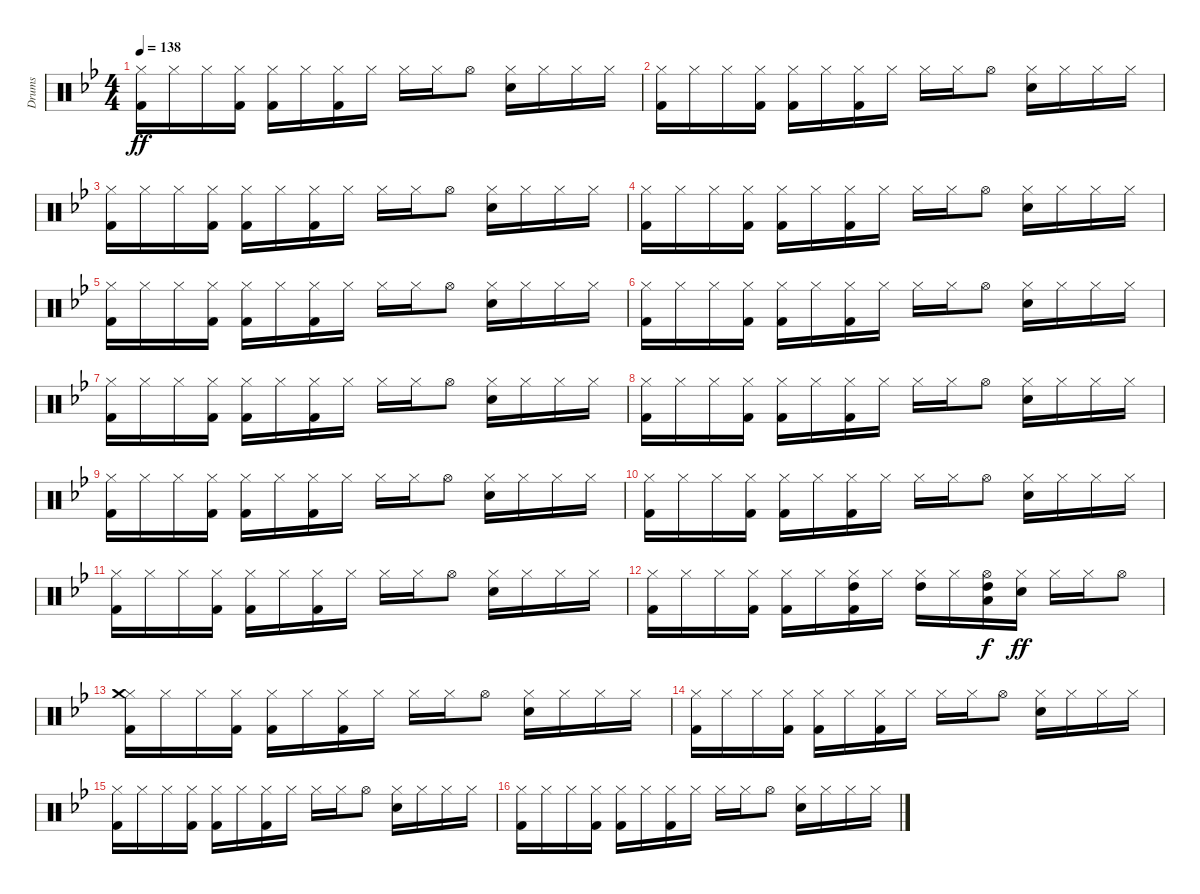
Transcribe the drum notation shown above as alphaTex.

\track ("Drums" "Drums") {instrument percussion}
\staff {score}
\articulation defaults
\ts (4 4)
\tempo 138
\clef neutral
\ks bb
("Kick (hit) 2" "Hi-Hat (closed)").16{dy ff volume 0} "Hi-Hat (closed)".16{volume 0} "Hi-Hat (closed)".16{volume 0} ("Kick (hit) 2" "Hi-Hat (closed)").16{volume 1} ("Kick (hit) 2" "Hi-Hat (closed)").16{volume 1} "Hi-Hat (closed)".16{volume 1} ("Kick (hit) 2" "Hi-Hat (closed)").16{volume 2} "Hi-Hat (closed)".16{volume 2} "Hi-Hat (closed)".16{volume 2} "Hi-Hat (closed)".16{volume 2} "Hi-Hat (open)".8{volume 3} ("Snare (hit) 2" "Hi-Hat (closed)").16{volume 3} "Hi-Hat (closed)".16{volume 4} "Hi-Hat (closed)".16{volume 4} "Hi-Hat (closed)".16{volume 4} |
("Kick (hit) 2" "Hi-Hat (closed)").16{volume 4} "Hi-Hat (closed)".16{volume 5} "Hi-Hat (closed)".16{volume 5} ("Kick (hit) 2" "Hi-Hat (closed)").16{volume 6} ("Kick (hit) 2" "Hi-Hat (closed)").16{volume 6} "Hi-Hat (closed)".16{volume 6} ("Kick (hit) 2" "Hi-Hat (closed)").16{volume 7} "Hi-Hat (closed)".16{volume 7} "Hi-Hat (closed)".16{volume 8} "Hi-Hat (closed)".16{volume 8} "Hi-Hat (open)".8{volume 8} ("Snare (hit) 2" "Hi-Hat (closed)").16{volume 9} "Hi-Hat (closed)".16{volume 10} "Hi-Hat (closed)".16{volume 10} "Hi-Hat (closed)".16{volume 10} |
("Kick (hit) 2" "Hi-Hat (closed)").16{volume 11} "Hi-Hat (closed)".16{volume 11} "Hi-Hat (closed)".16{volume 11} ("Kick (hit) 2" "Hi-Hat (closed)").16{volume 12} ("Kick (hit) 2" "Hi-Hat (closed)").16{volume 12} "Hi-Hat (closed)".16{volume 12} ("Kick (hit) 2" "Hi-Hat (closed)").16{volume 13} "Hi-Hat (closed)".16{volume 13} "Hi-Hat (closed)".16{volume 13} "Hi-Hat (closed)".16{volume 14} "Hi-Hat (open)".8{volume 14} ("Snare (hit) 2" "Hi-Hat (closed)").16{volume 14} "Hi-Hat (closed)".16{volume 15} "Hi-Hat (closed)".16{volume 15} "Hi-Hat (closed)".16{volume 16} |
("Kick (hit) 2" "Hi-Hat (closed)").16{volume 16} "Hi-Hat (closed)".16 "Hi-Hat (closed)".16 ("Kick (hit) 2" "Hi-Hat (closed)").16 ("Kick (hit) 2" "Hi-Hat (closed)").16 "Hi-Hat (closed)".16 ("Kick (hit) 2" "Hi-Hat (closed)").16 "Hi-Hat (closed)".16 "Hi-Hat (closed)".16 "Hi-Hat (closed)".16 "Hi-Hat (open)".8 ("Snare (hit) 2" "Hi-Hat (closed)").16 "Hi-Hat (closed)".16 "Hi-Hat (closed)".16 "Hi-Hat (closed)".16 |
("Kick (hit) 2" "Hi-Hat (closed)").16 "Hi-Hat (closed)".16 "Hi-Hat (closed)".16 ("Kick (hit) 2" "Hi-Hat (closed)").16 ("Kick (hit) 2" "Hi-Hat (closed)").16 "Hi-Hat (closed)".16 ("Kick (hit) 2" "Hi-Hat (closed)").16 "Hi-Hat (closed)".16 "Hi-Hat (closed)".16 "Hi-Hat (closed)".16 "Hi-Hat (open)".8 ("Snare (hit) 2" "Hi-Hat (closed)").16 "Hi-Hat (closed)".16 "Hi-Hat (closed)".16 "Hi-Hat (closed)".16 |
("Kick (hit) 2" "Hi-Hat (closed)").16 "Hi-Hat (closed)".16 "Hi-Hat (closed)".16 ("Kick (hit) 2" "Hi-Hat (closed)").16 ("Kick (hit) 2" "Hi-Hat (closed)").16 "Hi-Hat (closed)".16 ("Kick (hit) 2" "Hi-Hat (closed)").16 "Hi-Hat (closed)".16 "Hi-Hat (closed)".16 "Hi-Hat (closed)".16 "Hi-Hat (open)".8 ("Snare (hit) 2" "Hi-Hat (closed)").16 "Hi-Hat (closed)".16 "Hi-Hat (closed)".16 "Hi-Hat (closed)".16 |
("Kick (hit) 2" "Hi-Hat (closed)").16 "Hi-Hat (closed)".16 "Hi-Hat (closed)".16 ("Kick (hit) 2" "Hi-Hat (closed)").16 ("Kick (hit) 2" "Hi-Hat (closed)").16 "Hi-Hat (closed)".16 ("Kick (hit) 2" "Hi-Hat (closed)").16 "Hi-Hat (closed)".16 "Hi-Hat (closed)".16 "Hi-Hat (closed)".16 "Hi-Hat (open)".8 ("Snare (hit) 2" "Hi-Hat (closed)").16 "Hi-Hat (closed)".16 "Hi-Hat (closed)".16 "Hi-Hat (closed)".16 |
("Kick (hit) 2" "Hi-Hat (closed)").16 "Hi-Hat (closed)".16 "Hi-Hat (closed)".16 ("Kick (hit) 2" "Hi-Hat (closed)").16 ("Kick (hit) 2" "Hi-Hat (closed)").16 "Hi-Hat (closed)".16 ("Kick (hit) 2" "Hi-Hat (closed)").16 "Hi-Hat (closed)".16 "Hi-Hat (closed)".16 "Hi-Hat (closed)".16 "Hi-Hat (open)".8 ("Snare (hit) 2" "Hi-Hat (closed)").16 "Hi-Hat (closed)".16 "Hi-Hat (closed)".16 "Hi-Hat (closed)".16 |
("Kick (hit) 2" "Hi-Hat (closed)").16 "Hi-Hat (closed)".16 "Hi-Hat (closed)".16 ("Kick (hit) 2" "Hi-Hat (closed)").16 ("Kick (hit) 2" "Hi-Hat (closed)").16 "Hi-Hat (closed)".16 ("Kick (hit) 2" "Hi-Hat (closed)").16 "Hi-Hat (closed)".16 "Hi-Hat (closed)".16 "Hi-Hat (closed)".16 "Hi-Hat (open)".8 ("Snare (hit) 2" "Hi-Hat (closed)").16 "Hi-Hat (closed)".16 "Hi-Hat (closed)".16 "Hi-Hat (closed)".16 |
("Kick (hit) 2" "Hi-Hat (closed)").16 "Hi-Hat (closed)".16 "Hi-Hat (closed)".16 ("Kick (hit) 2" "Hi-Hat (closed)").16 ("Kick (hit) 2" "Hi-Hat (closed)").16 "Hi-Hat (closed)".16 ("Kick (hit) 2" "Hi-Hat (closed)").16 "Hi-Hat (closed)".16 "Hi-Hat (closed)".16 "Hi-Hat (closed)".16 "Hi-Hat (open)".8 ("Snare (hit) 2" "Hi-Hat (closed)").16 "Hi-Hat (closed)".16 "Hi-Hat (closed)".16 "Hi-Hat (closed)".16 |
("Kick (hit) 2" "Hi-Hat (closed)").16 "Hi-Hat (closed)".16 "Hi-Hat (closed)".16 ("Kick (hit) 2" "Hi-Hat (closed)").16 ("Kick (hit) 2" "Hi-Hat (closed)").16 "Hi-Hat (closed)".16 ("Kick (hit) 2" "Hi-Hat (closed)").16 "Hi-Hat (closed)".16 "Hi-Hat (closed)".16 "Hi-Hat (closed)".16 "Hi-Hat (open)".8 ("Snare (hit) 2" "Hi-Hat (closed)").16 "Hi-Hat (closed)".16 "Hi-Hat (closed)".16 "Hi-Hat (closed)".16 |
("Kick (hit) 2" "Hi-Hat (closed)").16 "Hi-Hat (closed)".16 "Hi-Hat (closed)".16 ("Kick (hit) 2" "Hi-Hat (closed)").16 ("Kick (hit) 2" "Hi-Hat (closed)").16 "Hi-Hat (closed)".16 ("Kick (hit) 2" "Hi-Hat (closed)" "High Tom (hit)").16 "Hi-Hat (closed)".16 ("Hi-Hat (closed)" "High Tom (hit)").16 "Hi-Hat (closed)".16 ("Low Tom (hit)" "Hi-Hat (open)" "High Tom (hit)").16{dy f} ("Snare (hit) 2" "Hi-Hat (closed)").16{dy ff} "Hi-Hat (closed)".16 "Hi-Hat (closed)".16 "Hi-Hat (open)".8 |
("Kick (hit) 2" "Hi-Hat (closed)" "Crash medium (hit)").16 "Hi-Hat (closed)".16 "Hi-Hat (closed)".16 ("Kick (hit) 2" "Hi-Hat (closed)").16 ("Kick (hit) 2" "Hi-Hat (closed)").16 "Hi-Hat (closed)".16 ("Kick (hit) 2" "Hi-Hat (closed)").16 "Hi-Hat (closed)".16 "Hi-Hat (closed)".16 "Hi-Hat (closed)".16 "Hi-Hat (open)".8 ("Snare (hit) 2" "Hi-Hat (closed)").16 "Hi-Hat (closed)".16 "Hi-Hat (closed)".16 "Hi-Hat (closed)".16 |
("Kick (hit) 2" "Hi-Hat (closed)").16 "Hi-Hat (closed)".16 "Hi-Hat (closed)".16 ("Kick (hit) 2" "Hi-Hat (closed)").16 ("Kick (hit) 2" "Hi-Hat (closed)").16 "Hi-Hat (closed)".16 ("Kick (hit) 2" "Hi-Hat (closed)").16 "Hi-Hat (closed)".16 "Hi-Hat (closed)".16 "Hi-Hat (closed)".16 "Hi-Hat (open)".8 ("Snare (hit) 2" "Hi-Hat (closed)").16 "Hi-Hat (closed)".16 "Hi-Hat (closed)".16 "Hi-Hat (closed)".16 |
("Kick (hit) 2" "Hi-Hat (closed)").16 "Hi-Hat (closed)".16 "Hi-Hat (closed)".16 ("Kick (hit) 2" "Hi-Hat (closed)").16 ("Kick (hit) 2" "Hi-Hat (closed)").16 "Hi-Hat (closed)".16 ("Kick (hit) 2" "Hi-Hat (closed)").16 "Hi-Hat (closed)".16 "Hi-Hat (closed)".16 "Hi-Hat (closed)".16 "Hi-Hat (open)".8 ("Snare (hit) 2" "Hi-Hat (closed)").16 "Hi-Hat (closed)".16 "Hi-Hat (closed)".16 "Hi-Hat (closed)".16 |
("Kick (hit) 2" "Hi-Hat (closed)").16 "Hi-Hat (closed)".16 "Hi-Hat (closed)".16 ("Kick (hit) 2" "Hi-Hat (closed)").16 ("Kick (hit) 2" "Hi-Hat (closed)").16 "Hi-Hat (closed)".16 ("Kick (hit) 2" "Hi-Hat (closed)").16 "Hi-Hat (closed)".16 "Hi-Hat (closed)".16 "Hi-Hat (closed)".16 "Hi-Hat (open)".8 ("Snare (hit) 2" "Hi-Hat (closed)").16 "Hi-Hat (closed)".16 "Hi-Hat (closed)".16 "Hi-Hat (closed)".16
